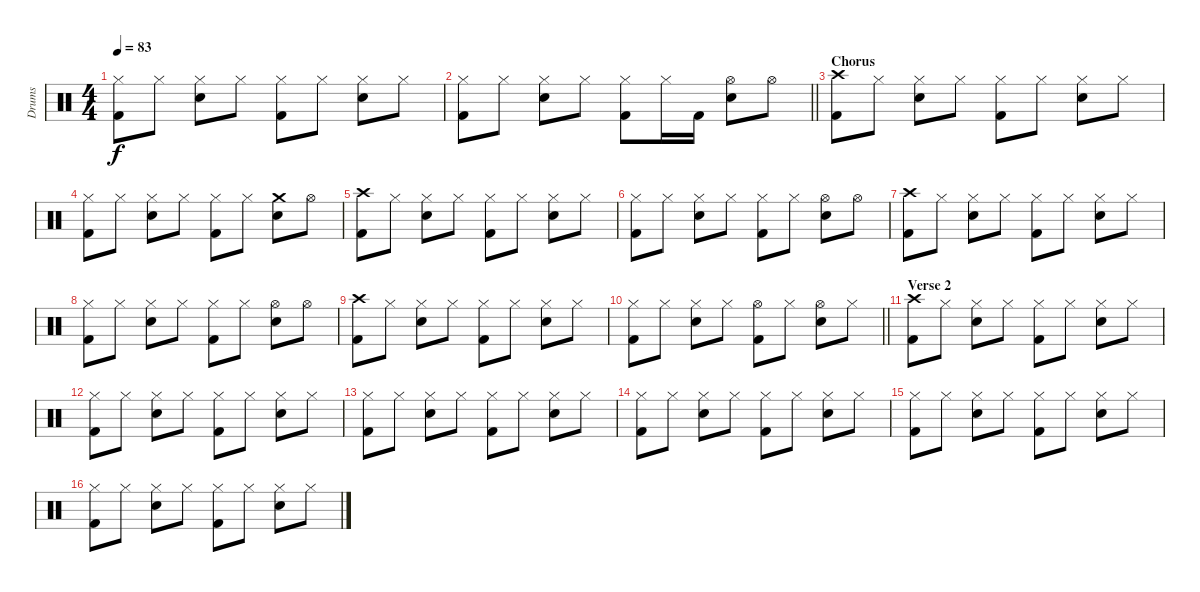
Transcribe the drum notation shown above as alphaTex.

\track ("Drums" "Drums") {instrument percussion}
\staff {score}
\articulation defaults
\ts (4 4)
\tempo 83
\clef neutral
\ks c
("Hi-Hat (closed)" "Kick (hit) 2").8{dy f} "Hi-Hat (closed)".8 ("Hi-Hat (closed)" "Electric Snare (hit)").8 "Hi-Hat (closed)".8 ("Hi-Hat (closed)" "Kick (hit) 2").8 "Hi-Hat (closed)".8 ("Hi-Hat (closed)" "Electric Snare (hit)").8 "Hi-Hat (closed)".8 |
\barLineRight lightlight
("Hi-Hat (closed)" "Kick (hit) 2").8 "Hi-Hat (closed)".8 ("Hi-Hat (closed)" "Electric Snare (hit)").8 "Hi-Hat (closed)".8 ("Hi-Hat (closed)" "Kick (hit) 2").8 "Hi-Hat (closed)".16 "Kick (hit) 2".16 ("Hi-Hat (open)" "Electric Snare (hit)").8 "Hi-Hat (open)".8 |
\section ("" "Chorus")
("Crash high (hit)" "Kick (hit) 2").8 "Hi-Hat (closed)".8 ("Hi-Hat (closed)" "Electric Snare (hit)").8 "Hi-Hat (closed)".8 ("Hi-Hat (closed)" "Kick (hit) 2").8 "Hi-Hat (closed)".8 ("Hi-Hat (closed)" "Electric Snare (hit)").8 "Hi-Hat (closed)".8 |
("Hi-Hat (closed)" "Kick (hit) 2").8 "Hi-Hat (closed)".8 ("Hi-Hat (closed)" "Electric Snare (hit)").8 "Hi-Hat (closed)".8 ("Hi-Hat (closed)" "Kick (hit) 2").8 "Hi-Hat (closed)".8 ("Crash medium (hit)" "Electric Snare (hit)").8 "Hi-Hat (open)".8 |
("Crash high (hit)" "Kick (hit) 2").8 "Hi-Hat (closed)".8 ("Hi-Hat (closed)" "Electric Snare (hit)").8 "Hi-Hat (closed)".8 ("Hi-Hat (closed)" "Kick (hit) 2").8 "Hi-Hat (closed)".8 ("Hi-Hat (closed)" "Electric Snare (hit)").8 "Hi-Hat (closed)".8 |
("Hi-Hat (closed)" "Kick (hit) 2").8 "Hi-Hat (closed)".8 ("Hi-Hat (closed)" "Electric Snare (hit)").8 "Hi-Hat (closed)".8 ("Hi-Hat (closed)" "Kick (hit) 2").8 "Hi-Hat (closed)".8 ("Hi-Hat (open)" "Electric Snare (hit)").8 "Hi-Hat (open)".8 |
("Crash high (hit)" "Kick (hit) 2").8 "Hi-Hat (closed)".8 ("Hi-Hat (closed)" "Electric Snare (hit)").8 "Hi-Hat (closed)".8 ("Hi-Hat (closed)" "Kick (hit) 2").8 "Hi-Hat (closed)".8 ("Hi-Hat (closed)" "Electric Snare (hit)").8 "Hi-Hat (closed)".8 |
("Hi-Hat (closed)" "Kick (hit) 2").8 "Hi-Hat (closed)".8 ("Hi-Hat (closed)" "Electric Snare (hit)").8 "Hi-Hat (closed)".8 ("Hi-Hat (closed)" "Kick (hit) 2").8 "Hi-Hat (closed)".8 ("Hi-Hat (open)" "Electric Snare (hit)").8 "Hi-Hat (open)".8 |
("Crash high (hit)" "Kick (hit) 2").8 "Hi-Hat (closed)".8 ("Hi-Hat (closed)" "Electric Snare (hit)").8 "Hi-Hat (closed)".8 ("Hi-Hat (closed)" "Kick (hit) 2").8 "Hi-Hat (closed)".8 ("Hi-Hat (closed)" "Electric Snare (hit)").8 "Hi-Hat (closed)".8 |
\barLineRight lightlight
("Hi-Hat (closed)" "Kick (hit) 2").8 "Hi-Hat (closed)".8 ("Hi-Hat (closed)" "Electric Snare (hit)").8 "Hi-Hat (closed)".8 ("Hi-Hat (open)" "Kick (hit) 2").8 "Hi-Hat (closed)".8 ("Hi-Hat (open)" "Electric Snare (hit)").8 "Hi-Hat (closed)".8 |
\section ("" "Verse 2")
("Crash high (hit)" "Kick (hit) 2").8 "Hi-Hat (closed)".8 ("Hi-Hat (closed)" "Electric Snare (hit)").8 "Hi-Hat (closed)".8 ("Hi-Hat (closed)" "Kick (hit) 2").8 "Hi-Hat (closed)".8 ("Hi-Hat (closed)" "Electric Snare (hit)").8 "Hi-Hat (closed)".8 |
("Hi-Hat (closed)" "Kick (hit) 2").8 "Hi-Hat (closed)".8 ("Hi-Hat (closed)" "Electric Snare (hit)").8 "Hi-Hat (closed)".8 ("Hi-Hat (closed)" "Kick (hit) 2").8 "Hi-Hat (closed)".8 ("Hi-Hat (closed)" "Electric Snare (hit)").8 "Hi-Hat (closed)".8 |
("Hi-Hat (closed)" "Kick (hit) 2").8 "Hi-Hat (closed)".8 ("Hi-Hat (closed)" "Electric Snare (hit)").8 "Hi-Hat (closed)".8 ("Hi-Hat (closed)" "Kick (hit) 2").8 "Hi-Hat (closed)".8 ("Hi-Hat (closed)" "Electric Snare (hit)").8 "Hi-Hat (closed)".8 |
("Hi-Hat (closed)" "Kick (hit) 2").8 "Hi-Hat (closed)".8 ("Hi-Hat (closed)" "Electric Snare (hit)").8 "Hi-Hat (closed)".8 ("Hi-Hat (closed)" "Kick (hit) 2").8 "Hi-Hat (closed)".8 ("Hi-Hat (closed)" "Electric Snare (hit)").8 "Hi-Hat (closed)".8 |
("Hi-Hat (closed)" "Kick (hit) 2").8 "Hi-Hat (closed)".8 ("Hi-Hat (closed)" "Electric Snare (hit)").8 "Hi-Hat (closed)".8 ("Hi-Hat (closed)" "Kick (hit) 2").8 "Hi-Hat (closed)".8 ("Hi-Hat (closed)" "Electric Snare (hit)").8 "Hi-Hat (closed)".8 |
("Hi-Hat (closed)" "Kick (hit) 2").8 "Hi-Hat (closed)".8 ("Hi-Hat (closed)" "Electric Snare (hit)").8 "Hi-Hat (closed)".8 ("Hi-Hat (closed)" "Kick (hit) 2").8 "Hi-Hat (closed)".8 ("Hi-Hat (closed)" "Electric Snare (hit)").8 "Hi-Hat (closed)".8
